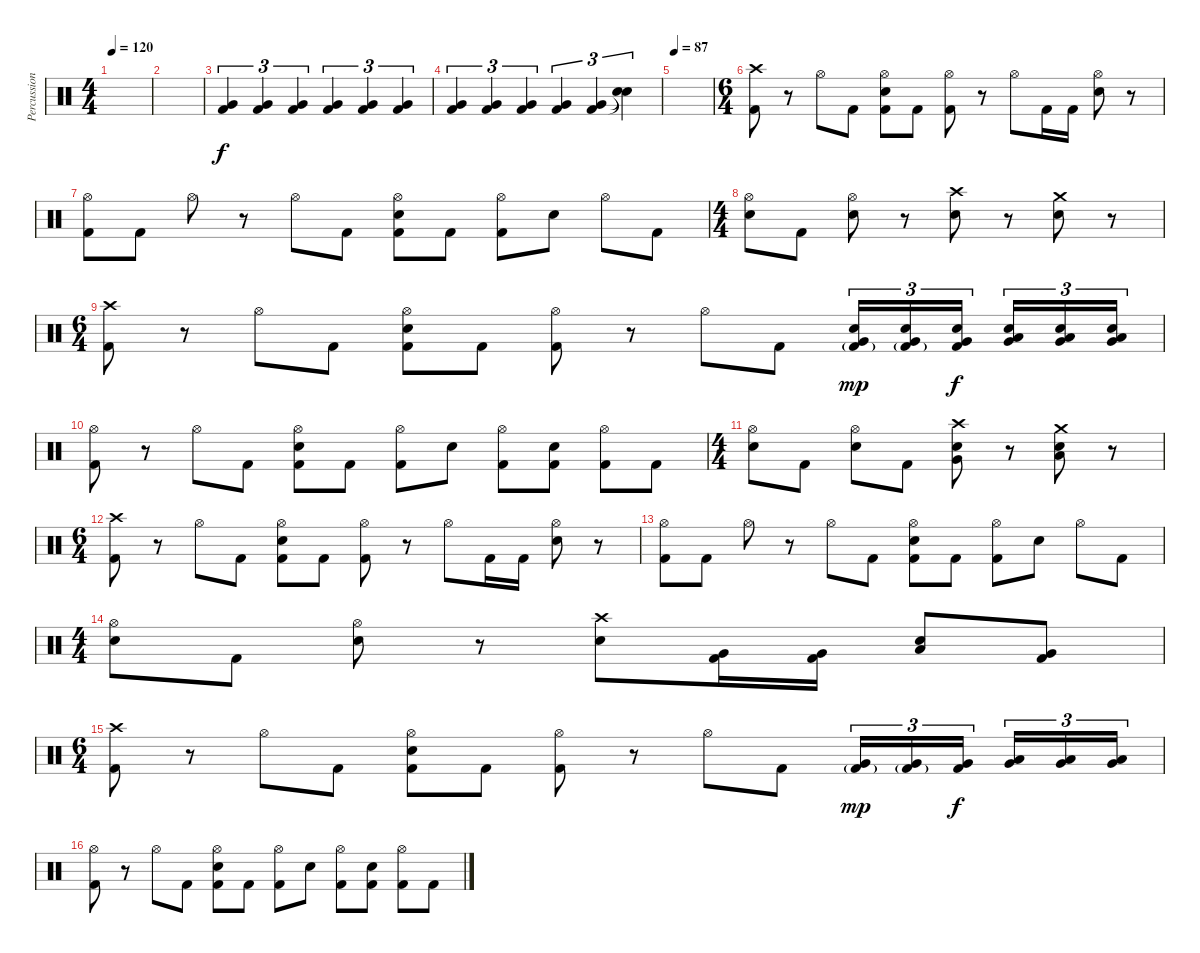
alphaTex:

\track ("Percussion" "Percussion") {instrument percussion}
\staff {score}
\articulation defaults
\ts (4 4)
\tempo 120
\clef neutral
\ks c
|
|
("Very Low Tom (hit)" "Kick (hit) 2").4{tu (3 2)} ("Very Low Tom (hit)" "Kick (hit) 2").4{tu (3 2)} ("Very Low Tom (hit)" "Kick (hit) 2").4{tu (3 2)} ("Very Low Tom (hit)" "Kick (hit) 2").4{tu (3 2)} ("Very Low Tom (hit)" "Kick (hit) 2").4{tu (3 2)} ("Very Low Tom (hit)" "Kick (hit) 2").4{tu (3 2)} |
("Kick (hit) 2" "Very Low Tom (hit)").4{tu (3 2)} ("Kick (hit) 2" "Very Low Tom (hit)").4{tu (3 2)} ("Kick (hit) 2" "Very Low Tom (hit)").4{tu (3 2)} ("Kick (hit) 2" "Very Low Tom (hit)").4{tu (3 2)} ("Kick (hit) 2" "Very Low Tom (hit)").4{tu (3 2)} ("Snare (hit)"{t} "Snare (hit)"{t}).4{tu (3 2)} |
\tempo 87
|
\ts (6 4)
("Crash high (hit)" "Kick (hit) 2").8 r.8 "Hi-Hat (open)".8 "Kick (hit) 2".8 ("Hi-Hat (open)" "Snare (hit) 2" "Kick (hit) 2").8 "Kick (hit) 2".8 ("Hi-Hat (open)" "Kick (hit) 2").8 r.8 "Hi-Hat (open)".8 "Kick (hit) 2".16 "Kick (hit) 2".16 ("Hi-Hat (open)" "Snare (hit) 2").8 r.8 |
("Hi-Hat (open)" "Kick (hit) 2").8 "Kick (hit) 2".8 "Hi-Hat (open)".8 r.8 "Hi-Hat (open)".8 "Kick (hit) 2".8 ("Hi-Hat (open)" "Snare (hit) 2" "Kick (hit) 2").8 "Kick (hit) 2".8 ("Hi-Hat (open)" "Kick (hit) 2").8 "Electric Snare (hit)".8 "Hi-Hat (open)".8 "Kick (hit) 2".8 |
\ts (4 4)
("Hi-Hat (open)" "Snare (hit) 2").8 "Kick (hit) 2".8 ("Hi-Hat (open)" "Snare (hit) 2").8 r.8 ("Crash high (hit)" "Snare (hit) 2").8 r.8 ("Crash medium (hit)" "Snare (hit) 2").8 r.8 |
\ts (6 4)
("Crash high (hit)" "Kick (hit) 2").8 r.8 "Hi-Hat (open)".8 "Kick (hit) 2".8 ("Hi-Hat (open)" "Snare (hit) 2" "Kick (hit) 2").8 "Kick (hit) 2".8 ("Hi-Hat (open)" "Kick (hit) 2").8 r.8 "Hi-Hat (open)".8 "Kick (hit) 2".8 ("Electric Snare (hit)" "Very Low Tom (hit)" "Kick (hit) 2"{g}).16{tu (3 2) dy mp} ("Electric Snare (hit)" "Very Low Tom (hit)" "Kick (hit) 2"{g}).16{tu (3 2)} ("Electric Snare (hit)" "Very Low Tom (hit)" "Kick (hit) 2").16{tu (3 2) dy f} ("Snare (hit) 2" "Low Floor Tom (hit)" "Very Low Tom (hit)").16{tu (3 2)} ("Snare (hit) 2" "Low Floor Tom (hit)" "Very Low Tom (hit)").16{tu (3 2)} ("Snare (hit) 2" "Low Floor Tom (hit)" "Very Low Tom (hit)").16{tu (3 2)} |
("Hi-Hat (open)" "Kick (hit) 2").8 r.8 "Hi-Hat (open)".8 "Kick (hit) 2".8 ("Hi-Hat (open)" "Snare (hit) 2" "Kick (hit) 2").8 "Kick (hit) 2".8 ("Hi-Hat (open)" "Kick (hit) 2").8 "Electric Snare (hit)".8 ("Hi-Hat (open)" "Kick (hit) 2").8 ("Snare (hit) 2" "Kick (hit) 2").8 ("Hi-Hat (open)" "Kick (hit) 2").8 "Kick (hit) 2".8 |
\ts (4 4)
("Hi-Hat (open)" "Snare (hit) 2").8 "Kick (hit) 2".8 ("Hi-Hat (open)" "Snare (hit) 2").8 "Kick (hit) 2".8 ("Crash high (hit)" "Very Low Tom (hit)" "Snare (hit) 2").8 r.8 ("Crash medium (hit)" "Low Floor Tom (hit)" "Snare (hit) 2").8 r.8 |
\ts (6 4)
("Crash high (hit)" "Kick (hit) 2").8 r.8 "Hi-Hat (open)".8 "Kick (hit) 2".8 ("Hi-Hat (open)" "Snare (hit) 2" "Kick (hit) 2").8 "Kick (hit) 2".8 ("Hi-Hat (open)" "Kick (hit) 2").8 r.8 "Hi-Hat (open)".8 "Kick (hit) 2".16 "Kick (hit) 2".16 ("Hi-Hat (open)" "Snare (hit) 2").8 r.8 |
("Hi-Hat (open)" "Kick (hit) 2").8 "Kick (hit) 2".8 "Hi-Hat (open)".8 r.8 "Hi-Hat (open)".8 "Kick (hit) 2".8 ("Hi-Hat (open)" "Snare (hit) 2" "Kick (hit) 2").8 "Kick (hit) 2".8 ("Hi-Hat (open)" "Kick (hit) 2").8 "Electric Snare (hit)".8 "Hi-Hat (open)".8 "Kick (hit) 2".8 |
\ts (4 4)
("Hi-Hat (open)" "Snare (hit) 2").8 "Kick (hit) 2".8 ("Hi-Hat (open)" "Snare (hit) 2").8 r.8 ("Crash high (hit)" "Snare (hit) 2").8 ("Very Low Tom (hit)" "Kick (hit) 2").16 ("Very Low Tom (hit)" "Kick (hit) 2").16 ("Low Floor Tom (hit)" "Snare (hit) 2").8 ("Very Low Tom (hit)" "Kick (hit) 2").8 |
\ts (6 4)
("Crash high (hit)" "Kick (hit) 2").8 r.8 "Hi-Hat (open)".8 "Kick (hit) 2".8 ("Hi-Hat (open)" "Snare (hit) 2" "Kick (hit) 2").8 "Kick (hit) 2".8 ("Hi-Hat (open)" "Kick (hit) 2").8 r.8 "Hi-Hat (open)".8 "Kick (hit) 2".8 ("Very Low Tom (hit)" "Kick (hit) 2"{g}).16{tu (3 2) dy mp} ("Very Low Tom (hit)" "Kick (hit) 2"{g}).16{tu (3 2)} ("Very Low Tom (hit)" "Kick (hit) 2").16{tu (3 2) dy f} ("Low Floor Tom (hit)" "Very Low Tom (hit)").16{tu (3 2)} ("Low Floor Tom (hit)" "Very Low Tom (hit)").16{tu (3 2)} ("Low Floor Tom (hit)" "Very Low Tom (hit)").16{tu (3 2)} |
("Hi-Hat (open)" "Kick (hit) 2").8 r.8 "Hi-Hat (open)".8 "Kick (hit) 2".8 ("Hi-Hat (open)" "Snare (hit) 2" "Kick (hit) 2").8 "Kick (hit) 2".8 ("Hi-Hat (open)" "Kick (hit) 2").8 "Electric Snare (hit)".8 ("Hi-Hat (open)" "Kick (hit) 2").8 ("Snare (hit) 2" "Kick (hit) 2").8 ("Hi-Hat (open)" "Kick (hit) 2").8 "Kick (hit) 2".8
